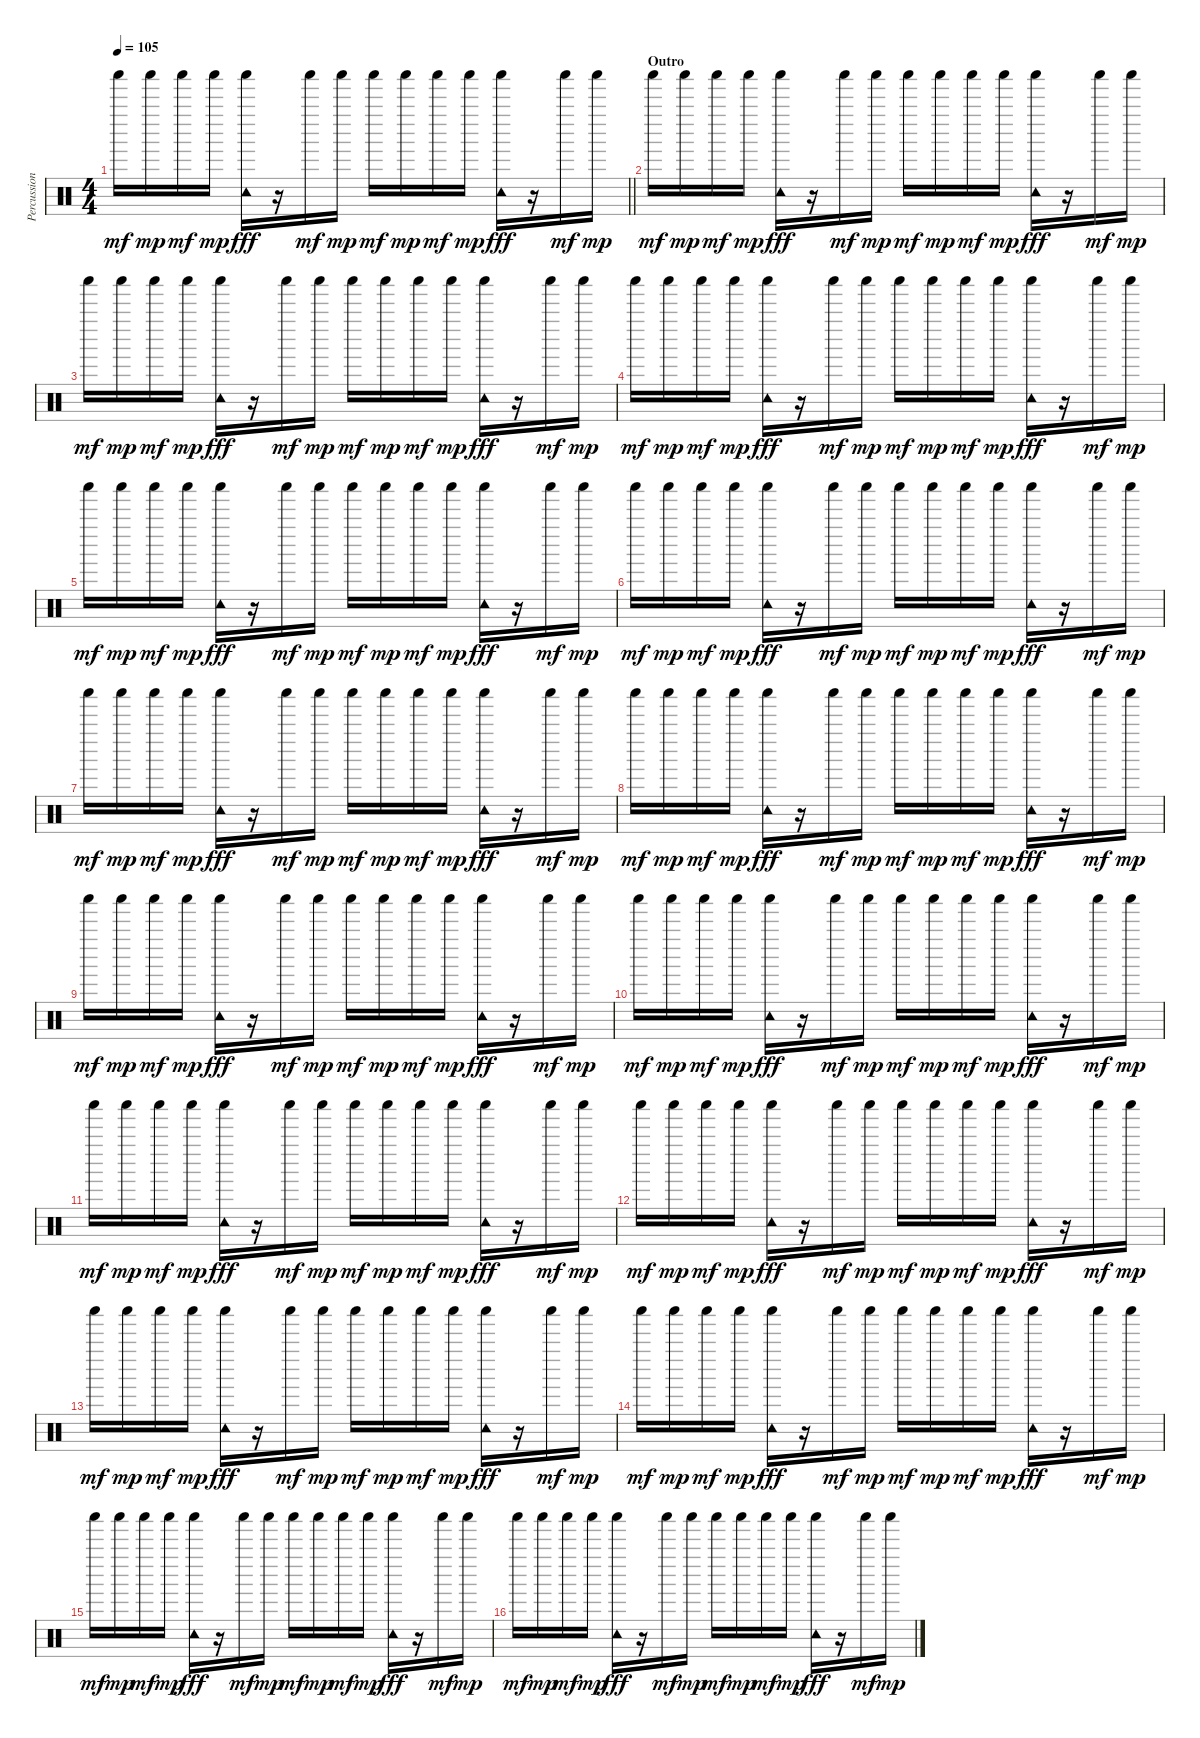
\track ("Percussion" "Percussion") {instrument percussion}
\staff {score}
\articulation defaults
\ts (4 4)
\tempo 105
\clef neutral
\barLineRight lightlight
\ks c "Shaker (hit)".16{dy mf} "Shaker (hit)".16{dy mp} "Shaker (hit)".16{dy mf} "Shaker (hit)".16{dy mp}
("Shaker (hit)" "Tambourine (hit)").16{dy fff} r.16 "Shaker (hit)".16{dy mf} "Shaker (hit)".16{dy mp} "Shaker (hit)".16{dy mf} "Shaker (hit)".16{dy mp} "Shaker (hit)".16{dy mf} "Shaker (hit)".16{dy mp} ("Shaker (hit)" "Tambourine (hit)").16{dy fff} r.16 "Shaker (hit)".16{dy mf} "Shaker (hit)".16{dy mp} |
\section ("" "Outro")
"Shaker (hit)".16{dy mf} "Shaker (hit)".16{dy mp} "Shaker (hit)".16{dy mf} "Shaker (hit)".16{dy mp} ("Shaker (hit)" "Tambourine (hit)").16{dy fff} r.16 "Shaker (hit)".16{dy mf} "Shaker (hit)".16{dy mp} "Shaker (hit)".16{dy mf} "Shaker (hit)".16{dy mp} "Shaker (hit)".16{dy mf} "Shaker (hit)".16{dy mp} ("Shaker (hit)" "Tambourine (hit)").16{dy fff} r.16 "Shaker (hit)".16{dy mf} "Shaker (hit)".16{dy mp} |
"Shaker (hit)".16{dy mf} "Shaker (hit)".16{dy mp} "Shaker (hit)".16{dy mf} "Shaker (hit)".16{dy mp} ("Shaker (hit)" "Tambourine (hit)").16{dy fff} r.16 "Shaker (hit)".16{dy mf} "Shaker (hit)".16{dy mp} "Shaker (hit)".16{dy mf} "Shaker (hit)".16{dy mp} "Shaker (hit)".16{dy mf} "Shaker (hit)".16{dy mp} ("Shaker (hit)" "Tambourine (hit)").16{dy fff} r.16 "Shaker (hit)".16{dy mf} "Shaker (hit)".16{dy mp} |
"Shaker (hit)".16{dy mf} "Shaker (hit)".16{dy mp} "Shaker (hit)".16{dy mf} "Shaker (hit)".16{dy mp} ("Shaker (hit)" "Tambourine (hit)").16{dy fff} r.16 "Shaker (hit)".16{dy mf} "Shaker (hit)".16{dy mp} "Shaker (hit)".16{dy mf} "Shaker (hit)".16{dy mp} "Shaker (hit)".16{dy mf} "Shaker (hit)".16{dy mp} ("Shaker (hit)" "Tambourine (hit)").16{dy fff} r.16 "Shaker (hit)".16{dy mf} "Shaker (hit)".16{dy mp} |
"Shaker (hit)".16{dy mf} "Shaker (hit)".16{dy mp} "Shaker (hit)".16{dy mf} "Shaker (hit)".16{dy mp} ("Shaker (hit)" "Tambourine (hit)").16{dy fff} r.16 "Shaker (hit)".16{dy mf} "Shaker (hit)".16{dy mp} "Shaker (hit)".16{dy mf} "Shaker (hit)".16{dy mp} "Shaker (hit)".16{dy mf} "Shaker (hit)".16{dy mp} ("Shaker (hit)" "Tambourine (hit)").16{dy fff} r.16 "Shaker (hit)".16{dy mf} "Shaker (hit)".16{dy mp} |
"Shaker (hit)".16{dy mf} "Shaker (hit)".16{dy mp} "Shaker (hit)".16{dy mf} "Shaker (hit)".16{dy mp} ("Shaker (hit)" "Tambourine (hit)").16{dy fff} r.16 "Shaker (hit)".16{dy mf} "Shaker (hit)".16{dy mp} "Shaker (hit)".16{dy mf} "Shaker (hit)".16{dy mp} "Shaker (hit)".16{dy mf} "Shaker (hit)".16{dy mp} ("Shaker (hit)" "Tambourine (hit)").16{dy fff} r.16 "Shaker (hit)".16{dy mf} "Shaker (hit)".16{dy mp} |
"Shaker (hit)".16{dy mf} "Shaker (hit)".16{dy mp} "Shaker (hit)".16{dy mf} "Shaker (hit)".16{dy mp} ("Shaker (hit)" "Tambourine (hit)").16{dy fff} r.16 "Shaker (hit)".16{dy mf} "Shaker (hit)".16{dy mp} "Shaker (hit)".16{dy mf} "Shaker (hit)".16{dy mp} "Shaker (hit)".16{dy mf} "Shaker (hit)".16{dy mp} ("Shaker (hit)" "Tambourine (hit)").16{dy fff} r.16 "Shaker (hit)".16{dy mf} "Shaker (hit)".16{dy mp} |
"Shaker (hit)".16{dy mf} "Shaker (hit)".16{dy mp} "Shaker (hit)".16{dy mf} "Shaker (hit)".16{dy mp} ("Shaker (hit)" "Tambourine (hit)").16{dy fff} r.16 "Shaker (hit)".16{dy mf} "Shaker (hit)".16{dy mp} "Shaker (hit)".16{dy mf} "Shaker (hit)".16{dy mp} "Shaker (hit)".16{dy mf} "Shaker (hit)".16{dy mp} ("Shaker (hit)" "Tambourine (hit)").16{dy fff} r.16 "Shaker (hit)".16{dy mf} "Shaker (hit)".16{dy mp} |
"Shaker (hit)".16{dy mf} "Shaker (hit)".16{dy mp} "Shaker (hit)".16{dy mf} "Shaker (hit)".16{dy mp} ("Shaker (hit)" "Tambourine (hit)").16{dy fff} r.16 "Shaker (hit)".16{dy mf} "Shaker (hit)".16{dy mp} "Shaker (hit)".16{dy mf} "Shaker (hit)".16{dy mp} "Shaker (hit)".16{dy mf} "Shaker (hit)".16{dy mp} ("Shaker (hit)" "Tambourine (hit)").16{dy fff} r.16 "Shaker (hit)".16{dy mf} "Shaker (hit)".16{dy mp} |
"Shaker (hit)".16{dy mf} "Shaker (hit)".16{dy mp} "Shaker (hit)".16{dy mf} "Shaker (hit)".16{dy mp} ("Shaker (hit)" "Tambourine (hit)").16{dy fff} r.16 "Shaker (hit)".16{dy mf} "Shaker (hit)".16{dy mp} "Shaker (hit)".16{dy mf} "Shaker (hit)".16{dy mp} "Shaker (hit)".16{dy mf} "Shaker (hit)".16{dy mp} ("Shaker (hit)" "Tambourine (hit)").16{dy fff} r.16 "Shaker (hit)".16{dy mf} "Shaker (hit)".16{dy mp} |
"Shaker (hit)".16{dy mf} "Shaker (hit)".16{dy mp} "Shaker (hit)".16{dy mf} "Shaker (hit)".16{dy mp} ("Shaker (hit)" "Tambourine (hit)").16{dy fff} r.16 "Shaker (hit)".16{dy mf} "Shaker (hit)".16{dy mp} "Shaker (hit)".16{dy mf} "Shaker (hit)".16{dy mp} "Shaker (hit)".16{dy mf} "Shaker (hit)".16{dy mp} ("Shaker (hit)" "Tambourine (hit)").16{dy fff} r.16 "Shaker (hit)".16{dy mf} "Shaker (hit)".16{dy mp} |
"Shaker (hit)".16{dy mf} "Shaker (hit)".16{dy mp} "Shaker (hit)".16{dy mf} "Shaker (hit)".16{dy mp} ("Shaker (hit)" "Tambourine (hit)").16{dy fff} r.16 "Shaker (hit)".16{dy mf} "Shaker (hit)".16{dy mp} "Shaker (hit)".16{dy mf} "Shaker (hit)".16{dy mp} "Shaker (hit)".16{dy mf} "Shaker (hit)".16{dy mp} ("Shaker (hit)" "Tambourine (hit)").16{dy fff} r.16 "Shaker (hit)".16{dy mf} "Shaker (hit)".16{dy mp} |
"Shaker (hit)".16{dy mf} "Shaker (hit)".16{dy mp} "Shaker (hit)".16{dy mf} "Shaker (hit)".16{dy mp} ("Shaker (hit)" "Tambourine (hit)").16{dy fff} r.16 "Shaker (hit)".16{dy mf} "Shaker (hit)".16{dy mp} "Shaker (hit)".16{dy mf} "Shaker (hit)".16{dy mp} "Shaker (hit)".16{dy mf} "Shaker (hit)".16{dy mp} ("Shaker (hit)" "Tambourine (hit)").16{dy fff} r.16 "Shaker (hit)".16{dy mf} "Shaker (hit)".16{dy mp} |
"Shaker (hit)".16{dy mf} "Shaker (hit)".16{dy mp} "Shaker (hit)".16{dy mf} "Shaker (hit)".16{dy mp} ("Shaker (hit)" "Tambourine (hit)").16{dy fff} r.16 "Shaker (hit)".16{dy mf} "Shaker (hit)".16{dy mp} "Shaker (hit)".16{dy mf} "Shaker (hit)".16{dy mp} "Shaker (hit)".16{dy mf} "Shaker (hit)".16{dy mp} ("Shaker (hit)" "Tambourine (hit)").16{dy fff} r.16 "Shaker (hit)".16{dy mf} "Shaker (hit)".16{dy mp} |
"Shaker (hit)".16{dy mf} "Shaker (hit)".16{dy mp} "Shaker (hit)".16{dy mf} "Shaker (hit)".16{dy mp} ("Shaker (hit)" "Tambourine (hit)").16{dy fff} r.16 "Shaker (hit)".16{dy mf} "Shaker (hit)".16{dy mp} "Shaker (hit)".16{dy mf} "Shaker (hit)".16{dy mp} "Shaker (hit)".16{dy mf} "Shaker (hit)".16{dy mp} ("Shaker (hit)" "Tambourine (hit)").16{dy fff} r.16 "Shaker (hit)".16{dy mf} "Shaker (hit)".16{dy mp} |
"Shaker (hit)".16{dy mf} "Shaker (hit)".16{dy mp} "Shaker (hit)".16{dy mf} "Shaker (hit)".16{dy mp} ("Shaker (hit)" "Tambourine (hit)").16{dy fff} r.16 "Shaker (hit)".16{dy mf} "Shaker (hit)".16{dy mp} "Shaker (hit)".16{dy mf} "Shaker (hit)".16{dy mp} "Shaker (hit)".16{dy mf} "Shaker (hit)".16{dy mp} ("Shaker (hit)" "Tambourine (hit)").16{dy fff} r.16 "Shaker (hit)".16{dy mf} "Shaker (hit)".16{dy mp}
